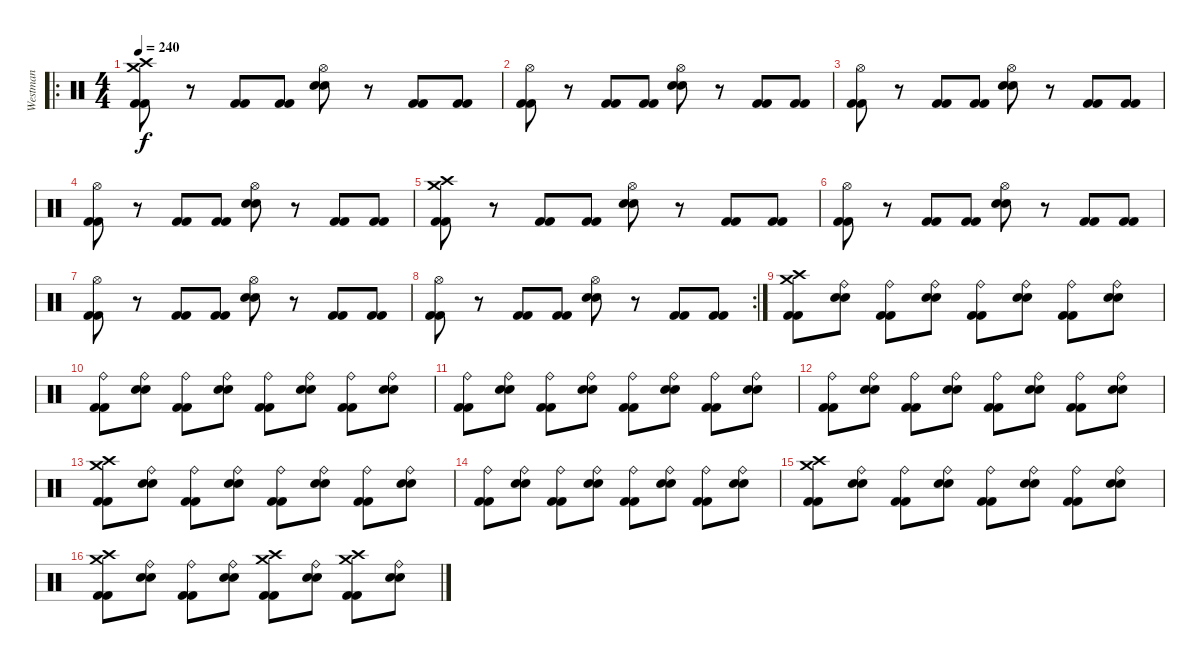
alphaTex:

\track ("Westman" "Westman") {instrument percussion}
\staff {score}
\articulation defaults
\ro
\ts (4 4)
\tempo 240
\clef neutral
\ks c
("Kick (hit) 2" "Kick (hit) 2" "Crash high (hit)" "Crash medium (hit)").8{dy f} r.8 ("Kick (hit) 2" "Kick (hit) 2").8 ("Kick (hit) 2" "Kick (hit) 2").8 ("Snare (hit) 2" "Electric Snare (hit)" "Hi-Hat (open)").8 r.8 ("Kick (hit) 2" "Kick (hit) 2").8 ("Kick (hit) 2" "Kick (hit) 2").8 |
("Kick (hit) 2" "Kick (hit) 2" "Hi-Hat (open)").8 r.8 ("Kick (hit) 2" "Kick (hit) 2").8 ("Kick (hit) 2" "Kick (hit) 2").8 ("Snare (hit) 2" "Electric Snare (hit)" "Hi-Hat (open)").8 r.8 ("Kick (hit) 2" "Kick (hit) 2").8 ("Kick (hit) 2" "Kick (hit) 2").8 |
("Kick (hit) 2" "Kick (hit) 2" "Hi-Hat (open)").8 r.8 ("Kick (hit) 2" "Kick (hit) 2").8 ("Kick (hit) 2" "Kick (hit) 2").8 ("Snare (hit) 2" "Electric Snare (hit)" "Hi-Hat (open)").8 r.8 ("Kick (hit) 2" "Kick (hit) 2").8 ("Kick (hit) 2" "Kick (hit) 2").8 |
("Kick (hit) 2" "Kick (hit) 2" "Hi-Hat (open)").8 r.8 ("Kick (hit) 2" "Kick (hit) 2").8 ("Kick (hit) 2" "Kick (hit) 2").8 ("Snare (hit) 2" "Electric Snare (hit)" "Hi-Hat (open)").8 r.8 ("Kick (hit) 2" "Kick (hit) 2").8 ("Kick (hit) 2" "Kick (hit) 2").8 |
("Kick (hit) 2" "Kick (hit) 2" "Crash high (hit)" "Crash medium (hit)").8 r.8 ("Kick (hit) 2" "Kick (hit) 2").8 ("Kick (hit) 2" "Kick (hit) 2").8 ("Snare (hit) 2" "Electric Snare (hit)" "Hi-Hat (open)").8 r.8 ("Kick (hit) 2" "Kick (hit) 2").8 ("Kick (hit) 2" "Kick (hit) 2").8 |
("Kick (hit) 2" "Kick (hit) 2" "Hi-Hat (open)").8 r.8 ("Kick (hit) 2" "Kick (hit) 2").8 ("Kick (hit) 2" "Kick (hit) 2").8 ("Snare (hit) 2" "Electric Snare (hit)" "Hi-Hat (open)").8 r.8 ("Kick (hit) 2" "Kick (hit) 2").8 ("Kick (hit) 2" "Kick (hit) 2").8 |
("Kick (hit) 2" "Kick (hit) 2" "Hi-Hat (open)").8 r.8 ("Kick (hit) 2" "Kick (hit) 2").8 ("Kick (hit) 2" "Kick (hit) 2").8 ("Snare (hit) 2" "Electric Snare (hit)" "Hi-Hat (open)").8 r.8 ("Kick (hit) 2" "Kick (hit) 2").8 ("Kick (hit) 2" "Kick (hit) 2").8 |
\rc 2
("Kick (hit) 2" "Kick (hit) 2" "Hi-Hat (open)").8 r.8 ("Kick (hit) 2" "Kick (hit) 2").8 ("Kick (hit) 2" "Kick (hit) 2").8 ("Snare (hit) 2" "Electric Snare (hit)" "Hi-Hat (open)").8 r.8 ("Kick (hit) 2" "Kick (hit) 2").8 ("Kick (hit) 2" "Kick (hit) 2").8 |
("Kick (hit) 2" "Kick (hit) 2" "Crash medium (hit)" "Crash high (hit)").8 ("Electric Snare (hit)" "Electric Snare (hit)" "Ride (bell)").8 ("Kick (hit) 2" "Kick (hit) 2" "Ride (bell)").8 ("Electric Snare (hit)" "Electric Snare (hit)" "Ride (bell)").8 ("Kick (hit) 2" "Kick (hit) 2" "Ride (bell)").8 ("Electric Snare (hit)" "Electric Snare (hit)" "Ride (bell)").8 ("Kick (hit) 2" "Kick (hit) 2" "Ride (bell)").8 ("Electric Snare (hit)" "Electric Snare (hit)" "Ride (bell)").8 |
("Kick (hit) 2" "Kick (hit) 2" "Ride (bell)").8 ("Electric Snare (hit)" "Electric Snare (hit)" "Ride (bell)").8 ("Kick (hit) 2" "Kick (hit) 2" "Ride (bell)").8 ("Electric Snare (hit)" "Electric Snare (hit)" "Ride (bell)").8 ("Kick (hit) 2" "Kick (hit) 2" "Ride (bell)").8 ("Electric Snare (hit)" "Electric Snare (hit)" "Ride (bell)").8 ("Kick (hit) 2" "Kick (hit) 2" "Ride (bell)").8 ("Electric Snare (hit)" "Electric Snare (hit)" "Ride (bell)").8 |
("Kick (hit) 2" "Kick (hit) 2" "Ride (bell)").8 ("Electric Snare (hit)" "Electric Snare (hit)" "Ride (bell)").8 ("Kick (hit) 2" "Kick (hit) 2" "Ride (bell)").8 ("Electric Snare (hit)" "Electric Snare (hit)" "Ride (bell)").8 ("Kick (hit) 2" "Kick (hit) 2" "Ride (bell)").8 ("Electric Snare (hit)" "Electric Snare (hit)" "Ride (bell)").8 ("Kick (hit) 2" "Kick (hit) 2" "Ride (bell)").8 ("Electric Snare (hit)" "Electric Snare (hit)" "Ride (bell)").8 |
("Kick (hit) 2" "Kick (hit) 2" "Ride (bell)").8 ("Electric Snare (hit)" "Electric Snare (hit)" "Ride (bell)").8 ("Kick (hit) 2" "Kick (hit) 2" "Ride (bell)").8 ("Electric Snare (hit)" "Electric Snare (hit)" "Ride (bell)").8 ("Kick (hit) 2" "Kick (hit) 2" "Ride (bell)").8 ("Electric Snare (hit)" "Electric Snare (hit)" "Ride (bell)").8 ("Kick (hit) 2" "Kick (hit) 2" "Ride (bell)").8 ("Electric Snare (hit)" "Electric Snare (hit)" "Ride (bell)").8 |
("Kick (hit) 2" "Kick (hit) 2" "Crash medium (hit)" "Crash high (hit)").8 ("Electric Snare (hit)" "Electric Snare (hit)" "Ride (bell)").8 ("Kick (hit) 2" "Kick (hit) 2" "Ride (bell)").8 ("Electric Snare (hit)" "Electric Snare (hit)" "Ride (bell)").8 ("Kick (hit) 2" "Kick (hit) 2" "Ride (bell)").8 ("Electric Snare (hit)" "Electric Snare (hit)" "Ride (bell)").8 ("Kick (hit) 2" "Kick (hit) 2" "Ride (bell)").8 ("Electric Snare (hit)" "Electric Snare (hit)" "Ride (bell)").8 |
("Kick (hit) 2" "Kick (hit) 2" "Ride (bell)").8 ("Electric Snare (hit)" "Electric Snare (hit)" "Ride (bell)").8 ("Kick (hit) 2" "Kick (hit) 2" "Ride (bell)").8 ("Electric Snare (hit)" "Electric Snare (hit)" "Ride (bell)").8 ("Kick (hit) 2" "Kick (hit) 2" "Ride (bell)").8 ("Electric Snare (hit)" "Electric Snare (hit)" "Ride (bell)").8 ("Kick (hit) 2" "Kick (hit) 2" "Ride (bell)").8 ("Electric Snare (hit)" "Electric Snare (hit)" "Ride (bell)").8 |
("Kick (hit) 2" "Kick (hit) 2" "Crash high (hit)" "Crash medium (hit)").8 ("Electric Snare (hit)" "Electric Snare (hit)" "Ride (bell)").8 ("Kick (hit) 2" "Kick (hit) 2" "Ride (bell)").8 ("Electric Snare (hit)" "Electric Snare (hit)" "Ride (bell)").8 ("Kick (hit) 2" "Kick (hit) 2" "Ride (bell)").8 ("Electric Snare (hit)" "Electric Snare (hit)" "Ride (bell)").8 ("Kick (hit) 2" "Kick (hit) 2" "Ride (bell)").8 ("Electric Snare (hit)" "Electric Snare (hit)" "Ride (bell)").8 |
("Kick (hit) 2" "Kick (hit) 2" "Crash high (hit)" "Crash medium (hit)").8 ("Electric Snare (hit)" "Electric Snare (hit)" "Ride (bell)").8 ("Kick (hit) 2" "Kick (hit) 2" "Ride (bell)").8 ("Electric Snare (hit)" "Electric Snare (hit)" "Ride (bell)").8 ("Kick (hit) 2" "Kick (hit) 2" "Crash medium (hit)" "Crash high (hit)").8 ("Electric Snare (hit)" "Electric Snare (hit)" "Ride (bell)").8 ("Kick (hit) 2" "Kick (hit) 2" "Crash high (hit)" "Crash medium (hit)").8 ("Electric Snare (hit)" "Electric Snare (hit)" "Ride (bell)").8
